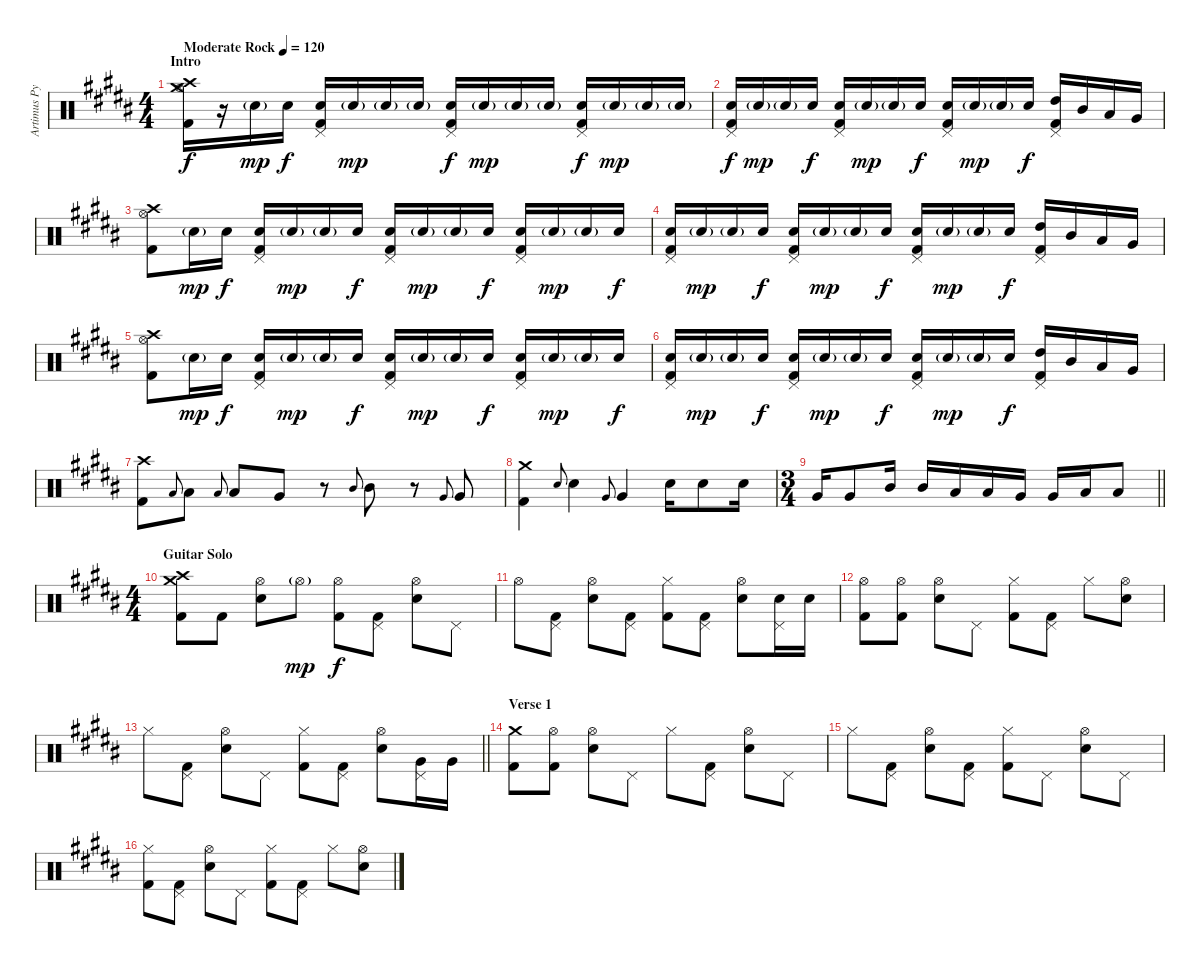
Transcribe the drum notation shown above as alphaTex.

\track ("Artimus Pyle - Drums" "Artimus Py") {instrument percussion}
\staff {score}
\articulation defaults
\ts (4 4)
\section ("" "Intro")
\tempo (120 "Moderate Rock")
\clef neutral
\ks b
("Crash high (hit)" "Crash medium (hit)" "Hi-Hat (open)" "Kick (hit) 2").16{dy f} r.16 "Snare (hit) 2"{g}.16{dy mp} "Snare (hit) 2".16{dy f} ("Snare (hit) 2" "Pedal Hi-Hat (hit)" "Kick (hit) 2").16 "Snare (hit) 2"{g}.16{dy mp} "Snare (hit) 2"{g}.16 "Snare (hit) 2"{g}.16 ("Snare (hit) 2" "Pedal Hi-Hat (hit)" "Kick (hit) 2").16{dy f} "Snare (hit) 2"{g}.16{dy mp} "Snare (hit) 2"{g}.16 "Snare (hit) 2"{g}.16 ("Snare (hit) 2" "Pedal Hi-Hat (hit)" "Kick (hit) 2").16{dy f} "Snare (hit) 2"{g}.16{dy mp} "Snare (hit) 2"{g}.16 "Snare (hit) 2"{g}.16 |
("Snare (hit) 2" "Pedal Hi-Hat (hit)" "Kick (hit) 2").16{dy f} "Snare (hit) 2"{g}.16{dy mp} "Snare (hit) 2"{g}.16 "Snare (hit) 2".16{dy f} ("Snare (hit) 2" "Pedal Hi-Hat (hit)" "Kick (hit) 2").16 "Snare (hit) 2"{g}.16{dy mp} "Snare (hit) 2"{g}.16 "Snare (hit) 2".16{dy f} ("Snare (hit) 2" "Pedal Hi-Hat (hit)" "Kick (hit) 2").16 "Snare (hit) 2"{g}.16{dy mp} "Snare (hit) 2"{g}.16 "Snare (hit) 2".16{dy f} ("High Tom (hit)" "Pedal Hi-Hat (hit)" "Kick (hit) 2").16 "Mid Tom (hit)".16 "Low Tom (hit)".16 "Very Low Tom (hit)".16 |
("Crash high (hit)" "Hi-Hat (open)" "Kick (hit) 2").8 "Snare (hit) 2"{g}.16{dy mp} "Snare (hit) 2".16{dy f} ("Snare (hit) 2" "Pedal Hi-Hat (hit)" "Kick (hit) 2").16 "Snare (hit) 2"{g}.16{dy mp} "Snare (hit) 2"{g}.16 "Snare (hit) 2".16{dy f} ("Snare (hit) 2" "Pedal Hi-Hat (hit)" "Kick (hit) 2").16 "Snare (hit) 2"{g}.16{dy mp} "Snare (hit) 2"{g}.16 "Snare (hit) 2".16{dy f} ("Snare (hit) 2" "Pedal Hi-Hat (hit)" "Kick (hit) 2").16 "Snare (hit) 2"{g}.16{dy mp} "Snare (hit) 2"{g}.16 "Snare (hit) 2".16{dy f} |
("Snare (hit) 2" "Pedal Hi-Hat (hit)" "Kick (hit) 2").16 "Snare (hit) 2"{g}.16{dy mp} "Snare (hit) 2"{g}.16 "Snare (hit) 2".16{dy f} ("Snare (hit) 2" "Pedal Hi-Hat (hit)" "Kick (hit) 2").16 "Snare (hit) 2"{g}.16{dy mp} "Snare (hit) 2"{g}.16 "Snare (hit) 2".16{dy f} ("Snare (hit) 2" "Pedal Hi-Hat (hit)" "Kick (hit) 2").16 "Snare (hit) 2"{g}.16{dy mp} "Snare (hit) 2"{g}.16 "Snare (hit) 2".16{dy f} ("High Tom (hit)" "Pedal Hi-Hat (hit)" "Kick (hit) 2").16 "Mid Tom (hit)".16 "Low Tom (hit)".16 "Very Low Tom (hit)".16 |
("Crash high (hit)" "Hi-Hat (open)" "Kick (hit) 2").8 "Snare (hit) 2"{g}.16{dy mp} "Snare (hit) 2".16{dy f} ("Snare (hit) 2" "Pedal Hi-Hat (hit)" "Kick (hit) 2").16 "Snare (hit) 2"{g}.16{dy mp} "Snare (hit) 2"{g}.16 "Snare (hit) 2".16{dy f} ("Snare (hit) 2" "Pedal Hi-Hat (hit)" "Kick (hit) 2").16 "Snare (hit) 2"{g}.16{dy mp} "Snare (hit) 2"{g}.16 "Snare (hit) 2".16{dy f} ("Snare (hit) 2" "Pedal Hi-Hat (hit)" "Kick (hit) 2").16 "Snare (hit) 2"{g}.16{dy mp} "Snare (hit) 2"{g}.16 "Snare (hit) 2".16{dy f} |
("Snare (hit) 2" "Pedal Hi-Hat (hit)" "Kick (hit) 2").16 "Snare (hit) 2"{g}.16{dy mp} "Snare (hit) 2"{g}.16 "Snare (hit) 2".16{dy f} ("Snare (hit) 2" "Pedal Hi-Hat (hit)" "Kick (hit) 2").16 "Snare (hit) 2"{g}.16{dy mp} "Snare (hit) 2"{g}.16 "Snare (hit) 2".16{dy f} ("Snare (hit) 2" "Pedal Hi-Hat (hit)" "Kick (hit) 2").16 "Snare (hit) 2"{g}.16{dy mp} "Snare (hit) 2"{g}.16 "Snare (hit) 2".16{dy f} ("High Tom (hit)" "Pedal Hi-Hat (hit)" "Kick (hit) 2").16 "Mid Tom (hit)".16 "Low Tom (hit)".16 "Very Low Tom (hit)".16 |
("Crash high (hit)" "Kick (hit) 2").8 "Low Tom (hit)".8{gr onbeat} "Low Tom (hit)".8 "Low Tom (hit)".8{gr onbeat} "Low Tom (hit)".8 "Very Low Tom (hit)".8 r.8 "Mid Tom (hit)".8{gr onbeat} "Mid Tom (hit)".8 r.8 "Very Low Tom (hit)".8{gr onbeat} "Very Low Tom (hit)".8 |
("Crash medium (hit)" "Kick (hit) 2").4 "Snare (hit) 2".8{gr onbeat} "Snare (hit) 2".4 "Very Low Tom (hit)".8{gr onbeat} "Very Low Tom (hit)".4 "Snare (hit) 2".16 "Snare (hit) 2".8 "Snare (hit) 2".16 |
\ts (3 4)
\barLineRight lightlight "Very Low Tom (hit)".16 "Very Low Tom (hit)".8 "Mid Tom (hit)".16 "Mid Tom (hit)".16 "Low Tom (hit)".16 "Low Tom (hit)".16 "Very Low Tom (hit)".16 "Very Low Tom (hit)".16 "Low Floor Tom (hit)".16 "Low Floor Tom (hit)".8
|
\ts (4 4)
\section ("" "Guitar Solo")
("Crash medium (hit)" "Crash high (hit)" "Kick (hit) 2").8 "Kick (hit) 2".8 ("Snare (hit) 2" "Hi-Hat (open)").8 "Hi-Hat (open)"{g}.8{dy mp} ("Hi-Hat (open)" "Kick (hit) 2").8{dy f} ("Pedal Hi-Hat (hit)" "Kick (hit) 2").8 ("Snare (hit) 2" "Hi-Hat (open)").8 "Pedal Hi-Hat (hit)".8 |
"Hi-Hat (open)".8 ("Pedal Hi-Hat (hit)" "Kick (hit) 2").8 ("Snare (hit) 2" "Hi-Hat (open)").8 ("Pedal Hi-Hat (hit)" "Kick (hit) 2").8 ("Hi-Hat (closed)" "Kick (hit) 2").8 ("Pedal Hi-Hat (hit)" "Kick (hit) 2").8 ("Snare (hit) 2" "Hi-Hat (open)").8 ("Snare (hit) 2" "Pedal Hi-Hat (hit)").16 "Snare (hit) 2".16 |
("Hi-Hat (open)" "Kick (hit) 2").8 ("Hi-Hat (open)" "Kick (hit) 2").8 ("Snare (hit) 2" "Hi-Hat (open)").8 "Pedal Hi-Hat (hit)".8 ("Hi-Hat (closed)" "Kick (hit) 2").8 ("Pedal Hi-Hat (hit)" "Kick (hit) 2").8 "Hi-Hat (closed)".8 ("Snare (hit) 2" "Hi-Hat (open)").8 |
\barLineRight lightlight "Hi-Hat (closed)".8
("Pedal Hi-Hat (hit)" "Kick (hit) 2").8 ("Snare (hit) 2" "Hi-Hat (open)").8 "Pedal Hi-Hat (hit)".8 ("Hi-Hat (closed)" "Kick (hit) 2").8 ("Pedal Hi-Hat (hit)" "Kick (hit) 2").8 ("Snare (hit) 2" "Hi-Hat (open)").8 ("Very Low Tom (hit)" "Pedal Hi-Hat (hit)").16 "Very Low Tom (hit)".16 |
\section ("" "Verse 1")
("Crash medium (hit)" "Kick (hit) 2").8 ("Hi-Hat (open)" "Kick (hit) 2").8 ("Snare (hit) 2" "Hi-Hat (open)").8 "Pedal Hi-Hat (hit)".8 "Hi-Hat (closed)".8 ("Pedal Hi-Hat (hit)" "Kick (hit) 2").8 ("Snare (hit) 2" "Hi-Hat (open)").8 "Pedal Hi-Hat (hit)".8 |
"Hi-Hat (closed)".8 ("Pedal Hi-Hat (hit)" "Kick (hit) 2").8 ("Snare (hit) 2" "Hi-Hat (open)").8 ("Pedal Hi-Hat (hit)" "Kick (hit) 2").8 ("Hi-Hat (closed)" "Kick (hit) 2").8 "Pedal Hi-Hat (hit)".8 ("Snare (hit) 2" "Hi-Hat (open)").8 "Pedal Hi-Hat (hit)".8 |
("Hi-Hat (closed)" "Kick (hit) 2").8 ("Pedal Hi-Hat (hit)" "Kick (hit) 2").8 ("Snare (hit) 2" "Hi-Hat (open)").8 "Pedal Hi-Hat (hit)".8 ("Hi-Hat (closed)" "Kick (hit) 2").8 ("Pedal Hi-Hat (hit)" "Kick (hit) 2").8 "Hi-Hat (closed)".8 ("Snare (hit) 2" "Hi-Hat (open)").8
